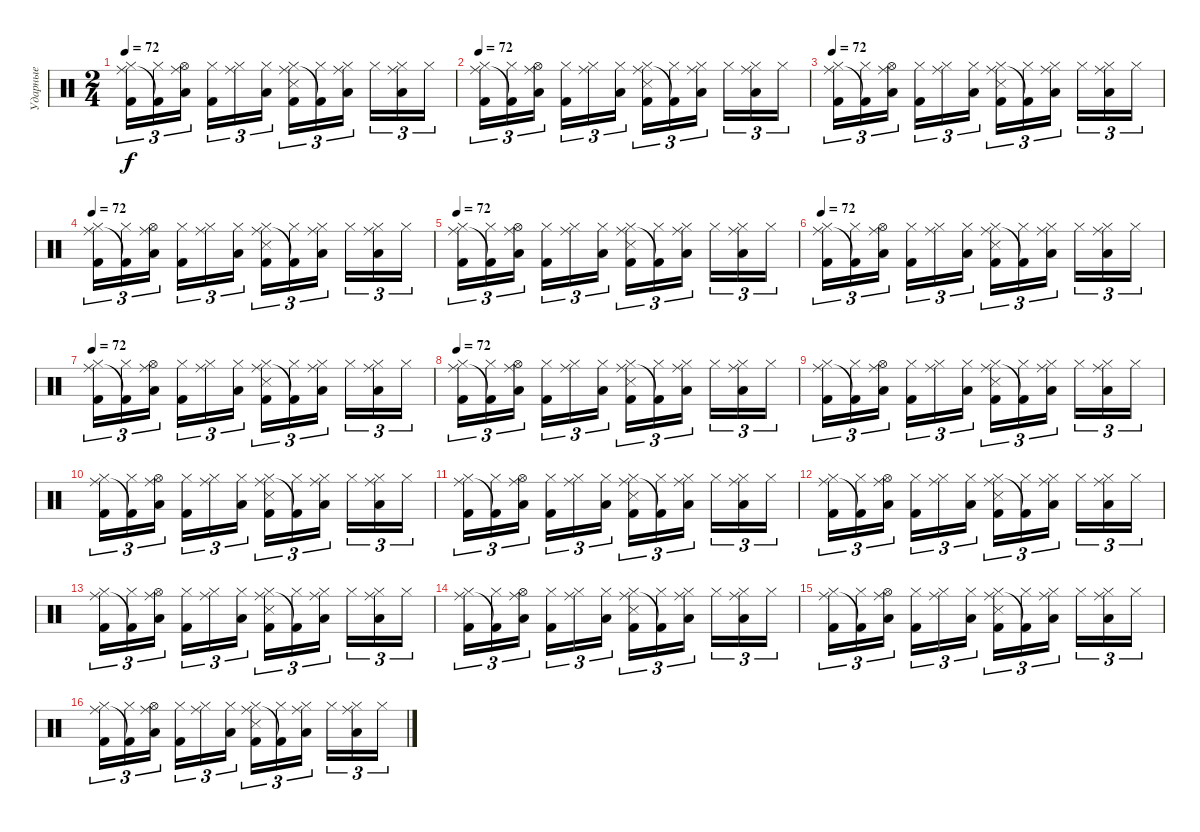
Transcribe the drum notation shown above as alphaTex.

\track ("Ударные" "Ударные") {instrument percussion}
\staff {score}
\articulation defaults
\ts (2 4)
\tempo 72
\clef neutral
\ks c
("Hi-Hat (closed)" "Ride (middle)" "Kick (hit) 2").16{tu (3 2) dy f} ("Hi-Hat (closed)" "Kick (hit) 2"{t}).16{tu (3 2)} ("Hi-Hat (open)" "Ride (middle)" "Low Tom (hit)").16{tu (3 2)} ("Hi-Hat (closed)" "Kick (hit) 2").16{tu (3 2)} ("Hi-Hat (closed)" "Ride (middle)").16{tu (3 2)} ("Hi-Hat (closed)" "Low Tom (hit)").16{tu (3 2)} ("Hi-Hat (closed)" "Ride (middle)" "Snare (side stick) 3" "Kick (hit) 2").16{tu (3 2)} ("Hi-Hat (closed)" "Kick (hit) 2"{t}).16{tu (3 2)} ("Hi-Hat (closed)" "Ride (middle)" "Low Tom (hit)").16{tu (3 2)} "Hi-Hat (closed)".16{tu (3 2)} ("Hi-Hat (closed)" "Ride (middle)" "Low Tom (hit)").16{tu (3 2)} "Hi-Hat (closed)".16{tu (3 2)} |
\tempo 72
("Hi-Hat (closed)" "Ride (middle)" "Kick (hit) 2").16{tu (3 2)} ("Hi-Hat (closed)" "Kick (hit) 2"{t}).16{tu (3 2)} ("Hi-Hat (open)" "Ride (middle)" "Low Tom (hit)").16{tu (3 2)} ("Hi-Hat (closed)" "Kick (hit) 2").16{tu (3 2)} ("Hi-Hat (closed)" "Ride (middle)").16{tu (3 2)} ("Hi-Hat (closed)" "Low Tom (hit)").16{tu (3 2)} ("Hi-Hat (closed)" "Ride (middle)" "Snare (side stick) 3" "Kick (hit) 2").16{tu (3 2)} ("Hi-Hat (closed)" "Kick (hit) 2"{t}).16{tu (3 2)} ("Hi-Hat (closed)" "Ride (middle)" "Low Tom (hit)").16{tu (3 2)} "Hi-Hat (closed)".16{tu (3 2)} ("Hi-Hat (closed)" "Ride (middle)" "Low Tom (hit)").16{tu (3 2)} "Hi-Hat (closed)".16{tu (3 2)} |
\tempo 72
("Hi-Hat (closed)" "Ride (middle)" "Kick (hit) 2").16{tu (3 2)} ("Hi-Hat (closed)" "Kick (hit) 2"{t}).16{tu (3 2)} ("Hi-Hat (open)" "Ride (middle)" "Low Tom (hit)").16{tu (3 2)} ("Hi-Hat (closed)" "Kick (hit) 2").16{tu (3 2)} ("Hi-Hat (closed)" "Ride (middle)").16{tu (3 2)} ("Hi-Hat (closed)" "Low Tom (hit)").16{tu (3 2)} ("Hi-Hat (closed)" "Ride (middle)" "Snare (side stick) 3" "Kick (hit) 2").16{tu (3 2)} ("Hi-Hat (closed)" "Kick (hit) 2"{t}).16{tu (3 2)} ("Hi-Hat (closed)" "Ride (middle)" "Low Tom (hit)").16{tu (3 2)} "Hi-Hat (closed)".16{tu (3 2)} ("Hi-Hat (closed)" "Ride (middle)" "Low Tom (hit)").16{tu (3 2)} "Hi-Hat (closed)".16{tu (3 2)} |
\tempo 72
("Hi-Hat (closed)" "Ride (middle)" "Kick (hit) 2").16{tu (3 2)} ("Hi-Hat (closed)" "Kick (hit) 2"{t}).16{tu (3 2)} ("Hi-Hat (open)" "Ride (middle)" "Low Tom (hit)").16{tu (3 2)} ("Hi-Hat (closed)" "Kick (hit) 2").16{tu (3 2)} ("Hi-Hat (closed)" "Ride (middle)").16{tu (3 2)} ("Hi-Hat (closed)" "Low Tom (hit)").16{tu (3 2)} ("Hi-Hat (closed)" "Ride (middle)" "Snare (side stick) 3" "Kick (hit) 2").16{tu (3 2)} ("Hi-Hat (closed)" "Kick (hit) 2"{t}).16{tu (3 2)} ("Hi-Hat (closed)" "Ride (middle)" "Low Tom (hit)").16{tu (3 2)} "Hi-Hat (closed)".16{tu (3 2)} ("Hi-Hat (closed)" "Ride (middle)" "Low Tom (hit)").16{tu (3 2)} "Hi-Hat (closed)".16{tu (3 2)} |
\tempo 72
("Hi-Hat (closed)" "Ride (middle)" "Kick (hit) 2").16{tu (3 2)} ("Hi-Hat (closed)" "Kick (hit) 2"{t}).16{tu (3 2)} ("Hi-Hat (open)" "Ride (middle)" "Low Tom (hit)").16{tu (3 2)} ("Hi-Hat (closed)" "Kick (hit) 2").16{tu (3 2)} ("Hi-Hat (closed)" "Ride (middle)").16{tu (3 2)} ("Hi-Hat (closed)" "Low Tom (hit)").16{tu (3 2)} ("Hi-Hat (closed)" "Ride (middle)" "Snare (side stick) 3" "Kick (hit) 2").16{tu (3 2)} ("Hi-Hat (closed)" "Kick (hit) 2"{t}).16{tu (3 2)} ("Hi-Hat (closed)" "Ride (middle)" "Low Tom (hit)").16{tu (3 2)} "Hi-Hat (closed)".16{tu (3 2)} ("Hi-Hat (closed)" "Ride (middle)" "Low Tom (hit)").16{tu (3 2)} "Hi-Hat (closed)".16{tu (3 2)} |
\tempo 72
("Hi-Hat (closed)" "Ride (middle)" "Kick (hit) 2").16{tu (3 2)} ("Hi-Hat (closed)" "Kick (hit) 2"{t}).16{tu (3 2)} ("Hi-Hat (open)" "Ride (middle)" "Low Tom (hit)").16{tu (3 2)} ("Hi-Hat (closed)" "Kick (hit) 2").16{tu (3 2)} ("Hi-Hat (closed)" "Ride (middle)").16{tu (3 2)} ("Hi-Hat (closed)" "Low Tom (hit)").16{tu (3 2)} ("Hi-Hat (closed)" "Ride (middle)" "Snare (side stick) 3" "Kick (hit) 2").16{tu (3 2)} ("Hi-Hat (closed)" "Kick (hit) 2"{t}).16{tu (3 2)} ("Hi-Hat (closed)" "Ride (middle)" "Low Tom (hit)").16{tu (3 2)} "Hi-Hat (closed)".16{tu (3 2)} ("Hi-Hat (closed)" "Ride (middle)" "Low Tom (hit)").16{tu (3 2)} "Hi-Hat (closed)".16{tu (3 2)} |
\tempo 72
("Hi-Hat (closed)" "Ride (middle)" "Kick (hit) 2").16{tu (3 2)} ("Hi-Hat (closed)" "Kick (hit) 2"{t}).16{tu (3 2)} ("Hi-Hat (open)" "Ride (middle)" "Low Tom (hit)").16{tu (3 2)} ("Hi-Hat (closed)" "Kick (hit) 2").16{tu (3 2)} ("Hi-Hat (closed)" "Ride (middle)").16{tu (3 2)} ("Hi-Hat (closed)" "Low Tom (hit)").16{tu (3 2)} ("Hi-Hat (closed)" "Ride (middle)" "Snare (side stick) 3" "Kick (hit) 2").16{tu (3 2)} ("Hi-Hat (closed)" "Kick (hit) 2"{t}).16{tu (3 2)} ("Hi-Hat (closed)" "Ride (middle)" "Low Tom (hit)").16{tu (3 2)} "Hi-Hat (closed)".16{tu (3 2)} ("Hi-Hat (closed)" "Ride (middle)" "Low Tom (hit)").16{tu (3 2)} "Hi-Hat (closed)".16{tu (3 2)} |
\tempo 72
("Hi-Hat (closed)" "Ride (middle)" "Kick (hit) 2").16{tu (3 2)} ("Hi-Hat (closed)" "Kick (hit) 2"{t}).16{tu (3 2)} ("Hi-Hat (open)" "Ride (middle)" "Low Tom (hit)").16{tu (3 2)} ("Hi-Hat (closed)" "Kick (hit) 2").16{tu (3 2)} ("Hi-Hat (closed)" "Ride (middle)").16{tu (3 2)} ("Hi-Hat (closed)" "Low Tom (hit)").16{tu (3 2)} ("Hi-Hat (closed)" "Ride (middle)" "Snare (side stick) 3" "Kick (hit) 2").16{tu (3 2)} ("Hi-Hat (closed)" "Kick (hit) 2"{t}).16{tu (3 2)} ("Hi-Hat (closed)" "Ride (middle)" "Low Tom (hit)").16{tu (3 2)} "Hi-Hat (closed)".16{tu (3 2)} ("Hi-Hat (closed)" "Ride (middle)" "Low Tom (hit)").16{tu (3 2)} "Hi-Hat (closed)".16{tu (3 2)} |
("Hi-Hat (closed)" "Ride (middle)" "Kick (hit) 2").16{tu (3 2)} ("Hi-Hat (closed)" "Kick (hit) 2"{t}).16{tu (3 2)} ("Hi-Hat (open)" "Ride (middle)" "Low Tom (hit)").16{tu (3 2)} ("Hi-Hat (closed)" "Kick (hit) 2").16{tu (3 2)} ("Hi-Hat (closed)" "Ride (middle)").16{tu (3 2)} ("Hi-Hat (closed)" "Low Tom (hit)").16{tu (3 2)} ("Hi-Hat (closed)" "Ride (middle)" "Snare (side stick) 3" "Kick (hit) 2").16{tu (3 2)} ("Hi-Hat (closed)" "Kick (hit) 2"{t}).16{tu (3 2)} ("Hi-Hat (closed)" "Ride (middle)" "Low Tom (hit)").16{tu (3 2)} "Hi-Hat (closed)".16{tu (3 2)} ("Hi-Hat (closed)" "Ride (middle)" "Low Tom (hit)").16{tu (3 2)} "Hi-Hat (closed)".16{tu (3 2)} |
("Hi-Hat (closed)" "Ride (middle)" "Kick (hit) 2").16{tu (3 2)} ("Hi-Hat (closed)" "Kick (hit) 2"{t}).16{tu (3 2)} ("Hi-Hat (open)" "Ride (middle)" "Low Tom (hit)").16{tu (3 2)} ("Hi-Hat (closed)" "Kick (hit) 2").16{tu (3 2)} ("Hi-Hat (closed)" "Ride (middle)").16{tu (3 2)} ("Hi-Hat (closed)" "Low Tom (hit)").16{tu (3 2)} ("Hi-Hat (closed)" "Ride (middle)" "Snare (side stick) 3" "Kick (hit) 2").16{tu (3 2)} ("Hi-Hat (closed)" "Kick (hit) 2"{t}).16{tu (3 2)} ("Hi-Hat (closed)" "Ride (middle)" "Low Tom (hit)").16{tu (3 2)} "Hi-Hat (closed)".16{tu (3 2)} ("Hi-Hat (closed)" "Ride (middle)" "Low Tom (hit)").16{tu (3 2)} "Hi-Hat (closed)".16{tu (3 2)} |
("Hi-Hat (closed)" "Ride (middle)" "Kick (hit) 2").16{tu (3 2)} ("Hi-Hat (closed)" "Kick (hit) 2"{t}).16{tu (3 2)} ("Hi-Hat (open)" "Ride (middle)" "Low Tom (hit)").16{tu (3 2)} ("Hi-Hat (closed)" "Kick (hit) 2").16{tu (3 2)} ("Hi-Hat (closed)" "Ride (middle)").16{tu (3 2)} ("Hi-Hat (closed)" "Low Tom (hit)").16{tu (3 2)} ("Hi-Hat (closed)" "Ride (middle)" "Snare (side stick) 3" "Kick (hit) 2").16{tu (3 2)} ("Hi-Hat (closed)" "Kick (hit) 2"{t}).16{tu (3 2)} ("Hi-Hat (closed)" "Ride (middle)" "Low Tom (hit)").16{tu (3 2)} "Hi-Hat (closed)".16{tu (3 2)} ("Hi-Hat (closed)" "Ride (middle)" "Low Tom (hit)").16{tu (3 2)} "Hi-Hat (closed)".16{tu (3 2)} |
("Hi-Hat (closed)" "Ride (middle)" "Kick (hit) 2").16{tu (3 2)} ("Hi-Hat (closed)" "Kick (hit) 2"{t}).16{tu (3 2)} ("Hi-Hat (open)" "Ride (middle)" "Low Tom (hit)").16{tu (3 2)} ("Hi-Hat (closed)" "Kick (hit) 2").16{tu (3 2)} ("Hi-Hat (closed)" "Ride (middle)").16{tu (3 2)} ("Hi-Hat (closed)" "Low Tom (hit)").16{tu (3 2)} ("Hi-Hat (closed)" "Ride (middle)" "Snare (side stick) 3" "Kick (hit) 2").16{tu (3 2)} ("Hi-Hat (closed)" "Kick (hit) 2"{t}).16{tu (3 2)} ("Hi-Hat (closed)" "Ride (middle)" "Low Tom (hit)").16{tu (3 2)} "Hi-Hat (closed)".16{tu (3 2)} ("Hi-Hat (closed)" "Ride (middle)" "Low Tom (hit)").16{tu (3 2)} "Hi-Hat (closed)".16{tu (3 2)} |
("Hi-Hat (closed)" "Ride (middle)" "Kick (hit) 2").16{tu (3 2)} ("Hi-Hat (closed)" "Kick (hit) 2"{t}).16{tu (3 2)} ("Hi-Hat (open)" "Ride (middle)" "Low Tom (hit)").16{tu (3 2)} ("Hi-Hat (closed)" "Kick (hit) 2").16{tu (3 2)} ("Hi-Hat (closed)" "Ride (middle)").16{tu (3 2)} ("Hi-Hat (closed)" "Low Tom (hit)").16{tu (3 2)} ("Hi-Hat (closed)" "Ride (middle)" "Snare (side stick) 3" "Kick (hit) 2").16{tu (3 2)} ("Hi-Hat (closed)" "Kick (hit) 2"{t}).16{tu (3 2)} ("Hi-Hat (closed)" "Ride (middle)" "Low Tom (hit)").16{tu (3 2)} "Hi-Hat (closed)".16{tu (3 2)} ("Hi-Hat (closed)" "Ride (middle)" "Low Tom (hit)").16{tu (3 2)} "Hi-Hat (closed)".16{tu (3 2)} |
("Hi-Hat (closed)" "Ride (middle)" "Kick (hit) 2").16{tu (3 2)} ("Hi-Hat (closed)" "Kick (hit) 2"{t}).16{tu (3 2)} ("Hi-Hat (open)" "Ride (middle)" "Low Tom (hit)").16{tu (3 2)} ("Hi-Hat (closed)" "Kick (hit) 2").16{tu (3 2)} ("Hi-Hat (closed)" "Ride (middle)").16{tu (3 2)} ("Hi-Hat (closed)" "Low Tom (hit)").16{tu (3 2)} ("Hi-Hat (closed)" "Ride (middle)" "Snare (side stick) 3" "Kick (hit) 2").16{tu (3 2)} ("Hi-Hat (closed)" "Kick (hit) 2"{t}).16{tu (3 2)} ("Hi-Hat (closed)" "Ride (middle)" "Low Tom (hit)").16{tu (3 2)} "Hi-Hat (closed)".16{tu (3 2)} ("Hi-Hat (closed)" "Ride (middle)" "Low Tom (hit)").16{tu (3 2)} "Hi-Hat (closed)".16{tu (3 2)} |
("Hi-Hat (closed)" "Ride (middle)" "Kick (hit) 2").16{tu (3 2)} ("Hi-Hat (closed)" "Kick (hit) 2"{t}).16{tu (3 2)} ("Hi-Hat (open)" "Ride (middle)" "Low Tom (hit)").16{tu (3 2)} ("Hi-Hat (closed)" "Kick (hit) 2").16{tu (3 2)} ("Hi-Hat (closed)" "Ride (middle)").16{tu (3 2)} ("Hi-Hat (closed)" "Low Tom (hit)").16{tu (3 2)} ("Hi-Hat (closed)" "Ride (middle)" "Snare (side stick) 3" "Kick (hit) 2").16{tu (3 2)} ("Hi-Hat (closed)" "Kick (hit) 2"{t}).16{tu (3 2)} ("Hi-Hat (closed)" "Ride (middle)" "Low Tom (hit)").16{tu (3 2)} "Hi-Hat (closed)".16{tu (3 2)} ("Hi-Hat (closed)" "Ride (middle)" "Low Tom (hit)").16{tu (3 2)} "Hi-Hat (closed)".16{tu (3 2)} |
("Hi-Hat (closed)" "Ride (middle)" "Kick (hit) 2").16{tu (3 2)} ("Hi-Hat (closed)" "Kick (hit) 2"{t}).16{tu (3 2)} ("Hi-Hat (open)" "Ride (middle)" "Low Tom (hit)").16{tu (3 2)} ("Hi-Hat (closed)" "Kick (hit) 2").16{tu (3 2)} ("Hi-Hat (closed)" "Ride (middle)").16{tu (3 2)} ("Hi-Hat (closed)" "Low Tom (hit)").16{tu (3 2)} ("Hi-Hat (closed)" "Ride (middle)" "Snare (side stick) 3" "Kick (hit) 2").16{tu (3 2)} ("Hi-Hat (closed)" "Kick (hit) 2"{t}).16{tu (3 2)} ("Hi-Hat (closed)" "Ride (middle)" "Low Tom (hit)").16{tu (3 2)} "Hi-Hat (closed)".16{tu (3 2)} ("Hi-Hat (closed)" "Ride (middle)" "Low Tom (hit)").16{tu (3 2)} "Hi-Hat (closed)".16{tu (3 2)}
